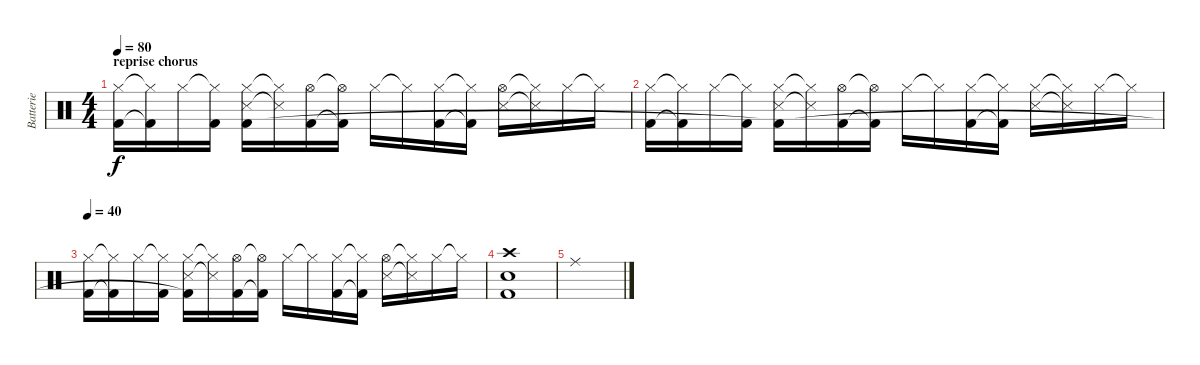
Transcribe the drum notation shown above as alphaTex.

\track ("Batterie" "Batterie") {instrument percussion}
\staff {score}
\articulation defaults
\ts (4 4)
\section ("" "reprise chorus")
\tempo 80
\clef neutral
\ks c
("Hi-Hat (closed)" "Kick (hit) 2").16{dy f} ("Hi-Hat (closed)"{t} "Kick (hit) 2"{t}).16 "Hi-Hat (closed)".16 ("Hi-Hat (closed)"{t} "Kick (hit) 2").16 ("Hi-Hat (closed)" "Snare (side stick) 3" "Kick (hit) 2"{t}).16 ("Hi-Hat (closed)"{t} "Snare (side stick) 3"{t}).16 ("Hi-Hat (open)" "Kick (hit) 2").16 ("Hi-Hat (open)"{t} "Kick (hit) 2"{t}).16 "Hi-Hat (closed)".16 "Hi-Hat (closed)"{t}.16 ("Hi-Hat (closed)" "Kick (hit) 2").16 ("Hi-Hat (closed)"{t} "Kick (hit) 2"{t}).16 ("Hi-Hat (open)" "Snare (side stick) 3").16 ("Hi-Hat (closed)"{t} "Snare (side stick) 3"{t}).16 "Hi-Hat (closed)".16 "Hi-Hat (closed)"{t}.16 |
("Hi-Hat (closed)" "Kick (hit) 2").16 ("Hi-Hat (closed)"{t} "Kick (hit) 2"{t}).16 "Hi-Hat (closed)".16 ("Hi-Hat (closed)"{t} "Kick (hit) 2").16 ("Hi-Hat (closed)" "Snare (side stick) 3" "Kick (hit) 2"{t}).16 ("Hi-Hat (closed)"{t} "Snare (side stick) 3"{t}).16 ("Hi-Hat (open)" "Kick (hit) 2").16 ("Hi-Hat (open)"{t} "Kick (hit) 2"{t}).16 "Hi-Hat (closed)".16 "Hi-Hat (closed)"{t}.16 ("Hi-Hat (closed)" "Kick (hit) 2").16 ("Hi-Hat (closed)"{t} "Kick (hit) 2"{t}).16 ("Hi-Hat (closed)" "Snare (side stick) 3").16 ("Hi-Hat (closed)"{t} "Snare (side stick) 3"{t}).16 "Hi-Hat (closed)".16 "Hi-Hat (closed)"{t}.16 |
\tempo 40
("Hi-Hat (closed)" "Kick (hit) 2").16 ("Hi-Hat (closed)"{t} "Kick (hit) 2"{t}).16 "Hi-Hat (closed)".16 ("Hi-Hat (closed)"{t} "Kick (hit) 2").16 ("Hi-Hat (closed)" "Snare (side stick) 3" "Kick (hit) 2"{t}).16 ("Hi-Hat (closed)"{t} "Snare (side stick) 3"{t}).16 ("Hi-Hat (open)" "Kick (hit) 2").16 ("Hi-Hat (open)"{t} "Kick (hit) 2"{t}).16 "Hi-Hat (closed)".16 "Hi-Hat (closed)"{t}.16 ("Hi-Hat (closed)" "Kick (hit) 2").16 ("Hi-Hat (closed)"{t} "Kick (hit) 2"{t}).16 ("Hi-Hat (open)" "Snare (side stick) 3").16 ("Hi-Hat (closed)"{t} "Snare (side stick) 3"{t}).16 "Hi-Hat (closed)".16 "Hi-Hat (closed)"{t}.16 |
("Crash high (hit)" "Snare (hit) 2" "Kick (hit) 2").1 |
"Ride (middle)".1
